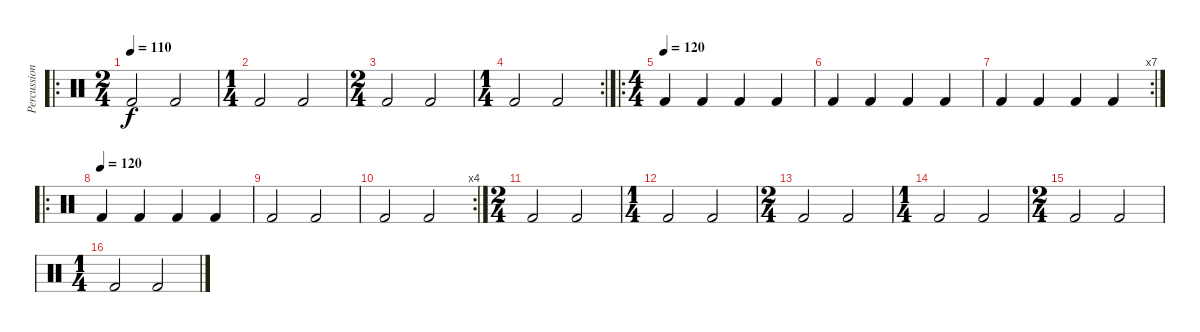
\track ("Percussion" "Percussion") {mute instrument percussion}
\staff {score}
\articulation defaults
\ro
\ts (2 4)
\tempo 110
\clef neutral
\ks c "Kick (hit) 2".2{dy f} "Kick (hit) 2".2
|
\ts (1 4)
"Kick (hit) 2".2 "Kick (hit) 2".2 |
\ts (2 4)
"Kick (hit) 2".2 "Kick (hit) 2".2 |
\rc 2
\ts (1 4)
"Kick (hit) 2".2 "Kick (hit) 2".2 |
\ro
\ts (4 4)
\tempo (120)
"Kick (hit) 2".4 "Kick (hit) 2".4 "Kick (hit) 2".4 "Kick (hit) 2".4 |
"Kick (hit) 2".4 "Kick (hit) 2".4 "Kick (hit) 2".4 "Kick (hit) 2".4 |
\rc 7 "Kick (hit) 2".4 "Kick (hit) 2".4 "Kick (hit) 2".4 "Kick (hit) 2".4
|
\ro
\tempo (120)
"Kick (hit) 2".4 "Kick (hit) 2".4 "Kick (hit) 2".4 "Kick (hit) 2".4 |
"Kick (hit) 2".2 "Kick (hit) 2".2 |
\rc 4 "Kick (hit) 2".2 "Kick (hit) 2".2
|
\ts (2 4)
"Kick (hit) 2".2 "Kick (hit) 2".2 |
\ts (1 4)
"Kick (hit) 2".2 "Kick (hit) 2".2 |
\ts (2 4)
"Kick (hit) 2".2 "Kick (hit) 2".2 |
\ts (1 4)
"Kick (hit) 2".2 "Kick (hit) 2".2 |
\ts (2 4)
"Kick (hit) 2".2 "Kick (hit) 2".2 |
\ts (1 4)
"Kick (hit) 2".2 "Kick (hit) 2".2
